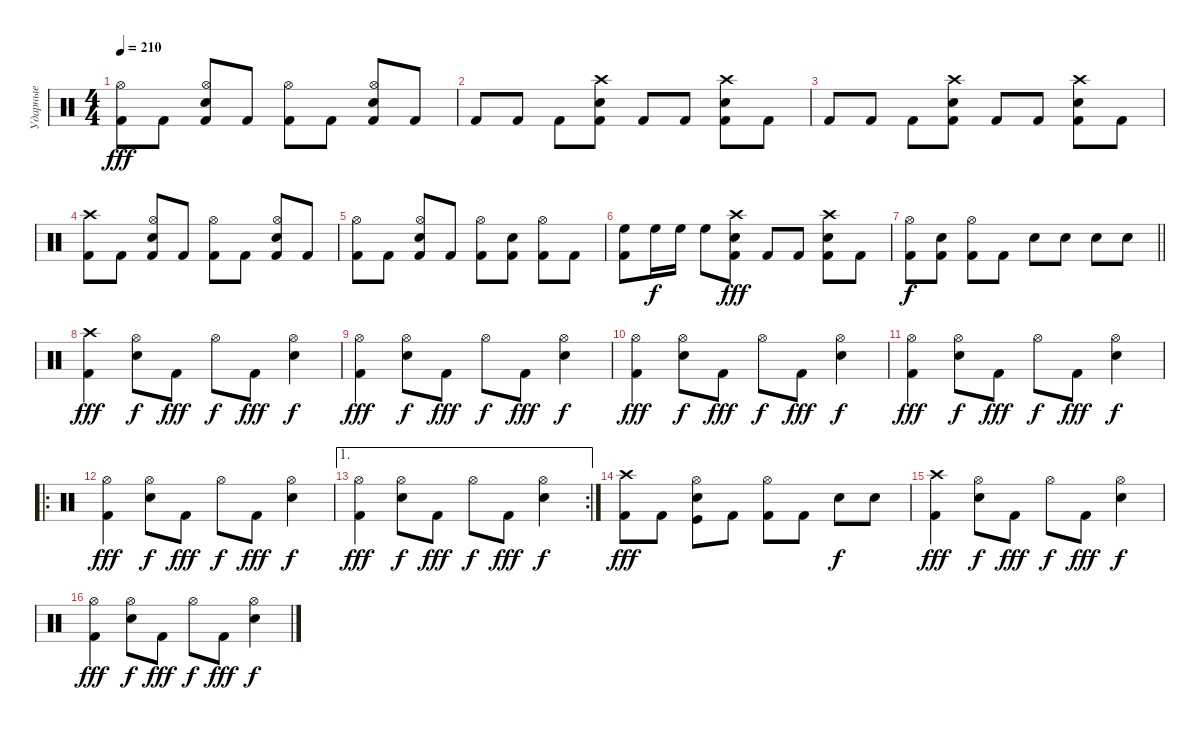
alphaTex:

\track ("Ударные" "Ударные") {instrument percussion}
\staff {score}
\articulation defaults
\ts (4 4)
\tempo 210
\clef neutral
\ks c
("Kick (hit) 2" "Hi-Hat (open)").8{dy fff} "Kick (hit) 2".8 ("Kick (hit) 2" "Snare (hit) 2" "Hi-Hat (open)").8 "Kick (hit) 2".8 ("Kick (hit) 2" "Hi-Hat (open)").8 "Kick (hit) 2".8 ("Kick (hit) 2" "Snare (hit) 2" "Hi-Hat (open)").8 "Kick (hit) 2".8 |
"Kick (hit) 2".8 "Kick (hit) 2".8 "Kick (hit) 2".8 ("Kick (hit) 2" "Snare (hit) 2" "Crash high (hit)").8 "Kick (hit) 2".8 "Kick (hit) 2".8 ("Kick (hit) 2" "Snare (hit) 2" "Crash high (hit)").8 "Kick (hit) 2".8 |
"Kick (hit) 2".8 "Kick (hit) 2".8 "Kick (hit) 2".8 ("Kick (hit) 2" "Snare (hit) 2" "Crash high (hit)").8 "Kick (hit) 2".8 "Kick (hit) 2".8 ("Kick (hit) 2" "Snare (hit) 2" "Crash high (hit)").8 "Kick (hit) 2".8 |
("Kick (hit) 2" "Crash high (hit)").8 "Kick (hit) 2".8 ("Kick (hit) 2" "Snare (hit) 2" "Hi-Hat (open)").8 "Kick (hit) 2".8 ("Kick (hit) 2" "Hi-Hat (open)").8 "Kick (hit) 2".8 ("Kick (hit) 2" "Snare (hit) 2" "Hi-Hat (open)").8 "Kick (hit) 2".8 |
("Kick (hit) 2" "Hi-Hat (open)").8 "Kick (hit) 2".8 ("Kick (hit) 2" "Snare (hit) 2" "Hi-Hat (open)").8 "Kick (hit) 2".8 ("Kick (hit) 2" "Hi-Hat (open)").8 ("Kick (hit) 2" "Snare (hit) 2").8 ("Kick (hit) 2" "Hi-Hat (open)").8 "Kick (hit) 2".8 |
("Kick (hit) 2" "High Floor Tom (hit)").8 "High Floor Tom (hit)".16{dy f} "High Floor Tom (hit)".16 "High Floor Tom (hit)".8 ("Kick (hit) 2" "Snare (hit) 2" "Crash high (hit)").8{dy fff} "Kick (hit) 2".8 "Kick (hit) 2".8 ("Kick (hit) 2" "Snare (hit) 2" "Crash high (hit)").8 "Kick (hit) 2".8 |
\barLineRight lightlight
("Kick (hit) 2" "Hi-Hat (open)").8{dy f} ("Kick (hit) 2" "Snare (hit) 2").8 ("Kick (hit) 2" "Hi-Hat (open)").8 "Kick (hit) 2".8 "Snare (hit) 2".8 "Snare (hit) 2".8 "Snare (hit) 2".8 "Snare (hit) 2".8 |
("Kick (hit) 2" "Crash high (hit)").4{dy fff} ("Snare (hit) 2" "Hi-Hat (open)").8{dy f} "Kick (hit) 2".8{dy fff} "Hi-Hat (open)".8{dy f} "Kick (hit) 2".8{dy fff} ("Snare (hit) 2" "Hi-Hat (open)").4{dy f} |
("Kick (hit) 2" "Hi-Hat (open)").4{dy fff} ("Snare (hit) 2" "Hi-Hat (open)").8{dy f} "Kick (hit) 2".8{dy fff} "Hi-Hat (open)".8{dy f} "Kick (hit) 2".8{dy fff} ("Snare (hit) 2" "Hi-Hat (open)").4{dy f} |
("Kick (hit) 2" "Hi-Hat (open)").4{dy fff} ("Snare (hit) 2" "Hi-Hat (open)").8{dy f} "Kick (hit) 2".8{dy fff} "Hi-Hat (open)".8{dy f} "Kick (hit) 2".8{dy fff} ("Snare (hit) 2" "Hi-Hat (open)").4{dy f} |
("Kick (hit) 2" "Hi-Hat (open)").4{dy fff} ("Snare (hit) 2" "Hi-Hat (open)").8{dy f} "Kick (hit) 2".8{dy fff} "Hi-Hat (open)".8{dy f} "Kick (hit) 2".8{dy fff} ("Snare (hit) 2" "Hi-Hat (open)").4{dy f} |
\ro
("Kick (hit) 2" "Hi-Hat (open)").4{dy fff} ("Snare (hit) 2" "Hi-Hat (open)").8{dy f} "Kick (hit) 2".8{dy fff} "Hi-Hat (open)".8{dy f} "Kick (hit) 2".8{dy fff} ("Snare (hit) 2" "Hi-Hat (open)").4{dy f} |
\ae 1
\rc 2
("Kick (hit) 2" "Hi-Hat (open)").4{dy fff} ("Snare (hit) 2" "Hi-Hat (open)").8{dy f} "Kick (hit) 2".8{dy fff} "Hi-Hat (open)".8{dy f} "Kick (hit) 2".8{dy fff} ("Snare (hit) 2" "Hi-Hat (open)").4{dy f} |
("Kick (hit) 2" "Crash high (hit)").8{dy fff} "Kick (hit) 2".8 ("Kick (hit)" "Snare (hit) 2" "Hi-Hat (open)").8 "Kick (hit) 2".8 ("Kick (hit) 2" "Hi-Hat (open)").8 "Kick (hit) 2".8 "Snare (hit) 2".8{dy f} "Snare (hit) 2".8 |
("Kick (hit) 2" "Crash high (hit)").4{dy fff} ("Snare (hit) 2" "Hi-Hat (open)").8{dy f} "Kick (hit) 2".8{dy fff} "Hi-Hat (open)".8{dy f} "Kick (hit) 2".8{dy fff} ("Snare (hit) 2" "Hi-Hat (open)").4{dy f} |
("Kick (hit) 2" "Hi-Hat (open)").4{dy fff} ("Snare (hit) 2" "Hi-Hat (open)").8{dy f} "Kick (hit) 2".8{dy fff} "Hi-Hat (open)".8{dy f} "Kick (hit) 2".8{dy fff} ("Snare (hit) 2" "Hi-Hat (open)").4{dy f}
